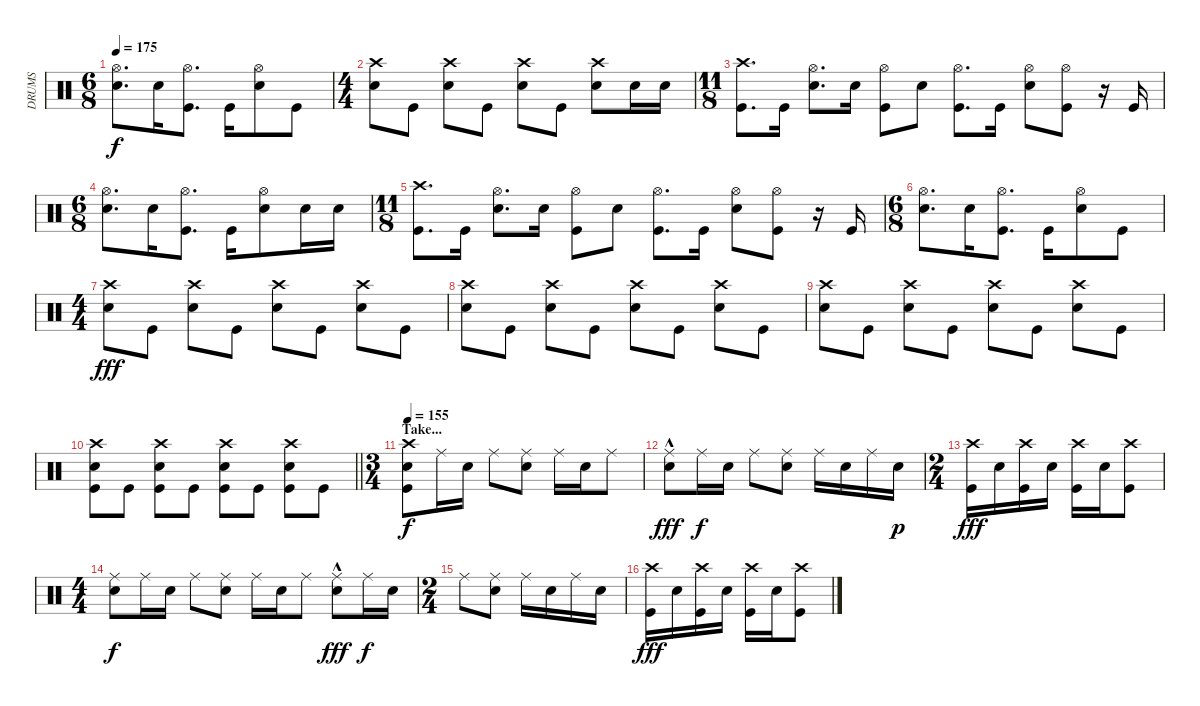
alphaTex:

\track ("DRUMS" "DRUMS") {instrument percussion}
\staff {score}
\articulation defaults
\ts (6 8)
\tempo 175
\clef neutral
\ks c
("Snare (hit) 2" "Hi-Hat (open)").8{d dy f} "Snare (hit) 2".16 ("Kick (hit)" "Hi-Hat (open)").8{d} "Kick (hit)".16 ("Snare (hit) 2" "Hi-Hat (open)").8 "Kick (hit)".8 |
\ts (4 4)
("Snare (hit) 2" "Crash high (hit)").8 "Kick (hit)".8 ("Snare (hit) 2" "Crash high (hit)").8 "Kick (hit)".8 ("Snare (hit) 2" "Crash high (hit)").8 "Kick (hit)".8 ("Snare (hit) 2" "Crash high (hit)").8 "Snare (hit) 2".16 "Snare (hit) 2".16 |
\ts (11 8)
("Crash high (hit)" "Kick (hit)").8{d} "Kick (hit)".16 ("Snare (hit) 2" "Hi-Hat (open)").8{d} "Snare (hit) 2".16 ("Kick (hit)" "Hi-Hat (open)").8 "Snare (hit) 2".8 ("Hi-Hat (open)" "Kick (hit)").8{d} "Kick (hit)".16 ("Snare (hit) 2" "Hi-Hat (open)").8 ("Kick (hit)" "Hi-Hat (open)").8 r.16 "Kick (hit)".16 |
\ts (6 8)
("Snare (hit) 2" "Hi-Hat (open)").8{d} "Snare (hit) 2".16 ("Kick (hit)" "Hi-Hat (open)").8{d} "Kick (hit)".16 ("Snare (hit) 2" "Hi-Hat (open)").8 "Snare (hit) 2".16 "Snare (hit) 2".16 |
\ts (11 8)
("Crash high (hit)" "Kick (hit)").8{d} "Kick (hit)".16 ("Snare (hit) 2" "Hi-Hat (open)").8{d} "Snare (hit) 2".16 ("Kick (hit)" "Hi-Hat (open)").8 "Snare (hit) 2".8 ("Hi-Hat (open)" "Kick (hit)").8{d} "Kick (hit)".16 ("Snare (hit) 2" "Hi-Hat (open)").8 ("Kick (hit)" "Hi-Hat (open)").8 r.16 "Kick (hit)".16 |
\ts (6 8)
("Snare (hit) 2" "Hi-Hat (open)").8{d} "Snare (hit) 2".16 ("Kick (hit)" "Hi-Hat (open)").8{d} "Kick (hit)".16 ("Snare (hit) 2" "Hi-Hat (open)").8 "Kick (hit)".8 |
\ts (4 4)
("Snare (hit) 2" "Crash high (hit)").8{dy fff} "Kick (hit)".8 ("Snare (hit) 2" "Crash high (hit)").8 "Kick (hit)".8 ("Snare (hit) 2" "Crash high (hit)").8 "Kick (hit)".8 ("Snare (hit) 2" "Crash high (hit)").8 "Kick (hit)".8 |
("Snare (hit) 2" "Crash high (hit)").8 "Kick (hit)".8 ("Snare (hit) 2" "Crash high (hit)").8 "Kick (hit)".8 ("Snare (hit) 2" "Crash high (hit)").8 "Kick (hit)".8 ("Snare (hit) 2" "Crash high (hit)").8 "Kick (hit)".8 |
("Snare (hit) 2" "Crash high (hit)").8 "Kick (hit)".8 ("Snare (hit) 2" "Crash high (hit)").8 "Kick (hit)".8 ("Snare (hit) 2" "Crash high (hit)").8 "Kick (hit)".8 ("Snare (hit) 2" "Crash high (hit)").8 "Kick (hit)".8 |
\barLineRight lightlight
("Snare (hit) 2" "Crash high (hit)" "Kick (hit)").8 "Kick (hit)".8 ("Snare (hit) 2" "Crash high (hit)" "Kick (hit)").8 "Kick (hit)".8 ("Snare (hit) 2" "Crash high (hit)" "Kick (hit)").8 "Kick (hit)".8 ("Snare (hit) 2" "Crash high (hit)" "Kick (hit)").8 "Kick (hit)".8 |
\ts (3 4)
\section ("" "Take...")
\tempo 155
("Crash high (hit)" "Kick (hit)" "Snare (hit) 2").8{dy f} "Ride (middle)".16 "Snare (hit) 2".16 "Ride (middle)".8 ("Ride (middle)" "Snare (hit) 2").8 "Ride (middle)".16 "Snare (hit) 2".16 "Ride (middle)".8 |
("Ride (middle)" "Snare (hit) 2"{hac}).8{dy fff} "Ride (middle)".16{dy f} "Snare (hit) 2".16 "Ride (middle)".8 ("Snare (hit) 2" "Ride (middle)").8 "Ride (middle)".16 "Snare (hit) 2".16 "Ride (middle)".16 "Snare (hit) 2".16{dy p} |
\ts (2 4)
("Crash high (hit)" "Kick (hit)").16{dy fff} "Snare (hit) 2".16 ("Kick (hit)" "Crash high (hit)").16 "Snare (hit) 2".16 ("Kick (hit)" "Crash high (hit)").16 "Snare (hit) 2".16 ("Crash high (hit)" "Kick (hit)").8 |
\ts (4 4)
("Ride (middle)" "Snare (hit) 2").8{dy f} "Ride (middle)".16 "Snare (hit) 2".16 "Ride (middle)".8 ("Ride (middle)" "Snare (hit) 2").8 "Ride (middle)".16 "Snare (hit) 2".16 "Ride (middle)".8 ("Ride (middle)" "Snare (hit) 2"{hac}).8{dy fff} "Ride (middle)".16{dy f} "Snare (hit) 2".16 |
\ts (2 4)
"Ride (middle)".8 ("Snare (hit) 2" "Ride (middle)").8 "Ride (middle)".16 "Snare (hit) 2".16 "Ride (middle)".16 "Snare (hit) 2".16 |
("Crash high (hit)" "Kick (hit)").16{dy fff} "Snare (hit) 2".16 ("Kick (hit)" "Crash high (hit)").16 "Snare (hit) 2".16 ("Kick (hit)" "Crash high (hit)").16 "Snare (hit) 2".16 ("Crash high (hit)" "Kick (hit)").8
